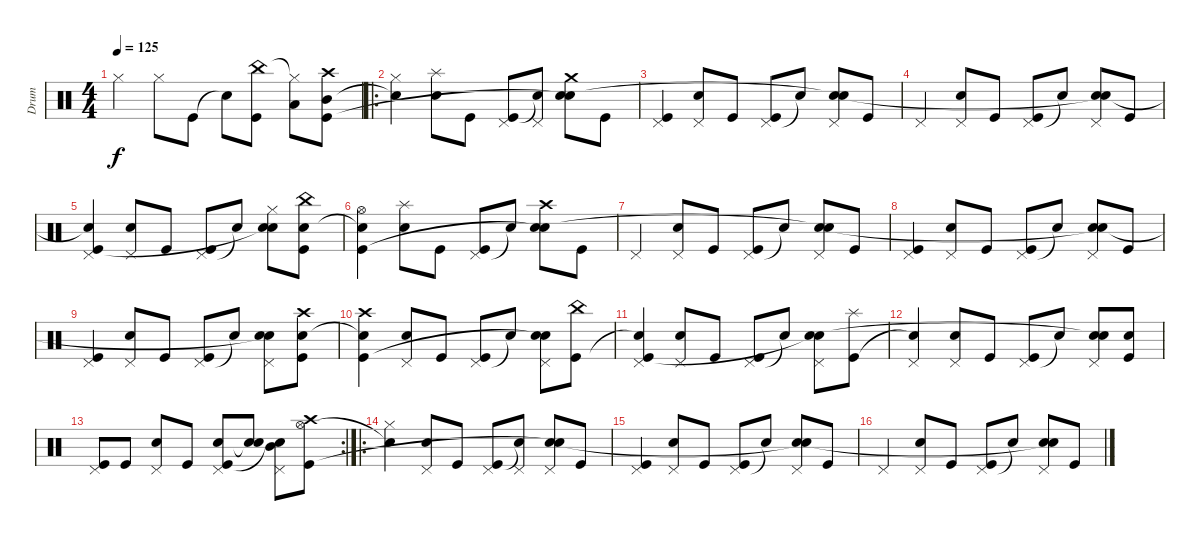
\track ("Drum" "Drum") {instrument percussion}
\staff {score}
\articulation defaults
\ts (4 4)
\tempo 125
\clef neutral
\ks c "Hi-Hat (closed)".4{dy f} "Hi-Hat (closed)".8 "Kick (hit)".8 "Snare (hit)"{t}.8
("China (hit)" "Kick (hit)").8 ("Hi-Hat (closed)"{t} "Low Tom (hit)").8 ("Crash high (hit)" "Mid Tom (hit)" "Kick (hit)").8 |
\ro
("Hi-Hat (closed)"{x} "Snare (hit)"{t}).4 ("Splash (hit)" "Snare (hit) 2").8 "Kick (hit)".8 ("Pedal Hi-Hat (hit)" "Kick (hit)").8 ("Pedal Hi-Hat (hit)"{x} "Snare (hit)"{t}).8 ("Crash medium (hit)" "Snare (hit) 2" "Snare (hit)"{t}).8 "Kick (hit)".8 |
("Pedal Hi-Hat (hit)" "Kick (hit)").4 ("Pedal Hi-Hat (hit)" "Snare (hit) 2").8 "Kick (hit)".8 ("Pedal Hi-Hat (hit)" "Kick (hit)").8 "Snare (hit)"{t}.8 ("Pedal Hi-Hat (hit)" "Snare (hit) 2" "Snare (hit)"{t}).8 "Kick (hit)".8 |
"Pedal Hi-Hat (hit)".4 ("Pedal Hi-Hat (hit)" "Snare (hit) 2").8 "Kick (hit)".8 ("Pedal Hi-Hat (hit)" "Kick (hit)").8 "Snare (hit)"{t}.8 ("Pedal Hi-Hat (hit)" "Snare (hit) 2" "Snare (hit)"{t}).8 "Kick (hit)".8 |
("Pedal Hi-Hat (hit)" "Snare (hit)"{t} "Kick (hit)"{x}).4 ("Pedal Hi-Hat (hit)" "Snare (hit) 2").8 "Kick (hit)".8 ("Pedal Hi-Hat (hit)" "Kick (hit)").8 "Snare (hit)"{t}.8 ("Hi-Hat (closed)" "Snare (hit) 2" "Snare (hit)"{t}).8 ("China (hit)" "Snare (hit) 2" "Kick (hit)").8 |
("Hi-Hat (open)"{x} "Snare (hit)"{t} "Kick (hit)").4 ("Splash (hit)" "Snare (hit) 2").8 "Kick (hit)".8 ("Pedal Hi-Hat (hit)" "Kick (hit)").8 "Snare (hit)"{t}.8 ("Crash high (hit)" "Snare (hit) 2" "Snare (hit)"{t}).8 "Kick (hit)".8 |
"Pedal Hi-Hat (hit)".4 ("Pedal Hi-Hat (hit)" "Snare (hit) 2").8 "Kick (hit)".8 ("Pedal Hi-Hat (hit)" "Kick (hit)").8 "Snare (hit)"{t}.8 ("Pedal Hi-Hat (hit)" "Snare (hit) 2" "Snare (hit)"{t}).8 "Kick (hit)".8 |
("Pedal Hi-Hat (hit)" "Kick (hit)").4 ("Pedal Hi-Hat (hit)" "Snare (hit) 2").8 "Kick (hit)".8 ("Pedal Hi-Hat (hit)" "Kick (hit)").8 "Snare (hit)"{t}.8 ("Pedal Hi-Hat (hit)" "Snare (hit) 2" "Snare (hit)"{t}).8 "Kick (hit)".8 |
("Pedal Hi-Hat (hit)" "Kick (hit)"{x}).4 ("Pedal Hi-Hat (hit)" "Snare (hit) 2").8 "Kick (hit)".8 ("Pedal Hi-Hat (hit)" "Kick (hit)").8 "Snare (hit)"{t}.8 ("Pedal Hi-Hat (hit)" "Snare (hit) 2" "Snare (hit)"{t}).8 ("Crash high (hit)"{x} "Snare (hit) 2" "Kick (hit)").8 |
("Crash high (hit)" "Snare (hit)"{t} "Kick (hit)").4 ("Pedal Hi-Hat (hit)" "Snare (hit) 2").8 "Kick (hit)".8 ("Pedal Hi-Hat (hit)" "Kick (hit)").8 "Snare (hit)"{t}.8 ("Pedal Hi-Hat (hit)" "Snare (hit) 2" "Snare (hit)"{t}).8 ("China (hit)" "Kick (hit)").8 |
("Pedal Hi-Hat (hit)" "Snare (hit)"{t} "Kick (hit)"{x}).4 ("Pedal Hi-Hat (hit)" "Snare (hit) 2").8 "Kick (hit)".8 ("Pedal Hi-Hat (hit)" "Kick (hit)").8 "Snare (hit)"{t}.8 ("Pedal Hi-Hat (hit)" "Snare (hit) 2" "Snare (hit)"{t}).8 ("Splash (hit)" "Kick (hit)").8 |
("Pedal Hi-Hat (hit)" "Snare (hit)"{t}).4 ("Pedal Hi-Hat (hit)" "Snare (hit) 2").8 "Kick (hit)".8 ("Pedal Hi-Hat (hit)" "Kick (hit)").8 "Snare (hit)"{t}.8 ("Pedal Hi-Hat (hit)" "Snare (hit) 2" "Snare (hit)"{t}).8 ("Snare (hit) 2" "Kick (hit)").8 |
\rc 2
("Pedal Hi-Hat (hit)" "Kick (hit)").8 "Kick (hit)".8 ("Pedal Hi-Hat (hit)" "Snare (hit) 2").8 "Kick (hit)".8 ("Pedal Hi-Hat (hit)" "Snare (hit) 2" "Kick (hit)").8 ("Snare (hit) 2" "Snare (hit)"{t}).8 ("Pedal Hi-Hat (hit)" "Mid Tom (hit)" "Snare (hit)"{t}).8 ("Crash high (hit)" "Hi-Hat (open)"{x} "Kick (hit)").8 |
\ro
("Hi-Hat (closed)"{x} "Snare (hit)"{t}).4 ("Pedal Hi-Hat (hit)" "Snare (hit) 2").8 "Kick (hit)".8 ("Pedal Hi-Hat (hit)" "Kick (hit)").8 ("Pedal Hi-Hat (hit)"{x} "Snare (hit)"{t}).8 ("Pedal Hi-Hat (hit)" "Snare (hit) 2" "Snare (hit)"{t}).8 "Kick (hit)".8 |
("Pedal Hi-Hat (hit)" "Kick (hit)").4 ("Pedal Hi-Hat (hit)" "Snare (hit) 2").8 "Kick (hit)".8 ("Pedal Hi-Hat (hit)" "Kick (hit)").8 "Snare (hit)"{t}.8 ("Pedal Hi-Hat (hit)" "Snare (hit) 2" "Snare (hit)"{t}).8 "Kick (hit)".8 |
"Pedal Hi-Hat (hit)".4 ("Pedal Hi-Hat (hit)" "Snare (hit) 2").8 "Kick (hit)".8 ("Pedal Hi-Hat (hit)" "Kick (hit)").8 "Snare (hit)"{t}.8 ("Pedal Hi-Hat (hit)" "Snare (hit) 2" "Snare (hit)"{t}).8 "Kick (hit)".8
